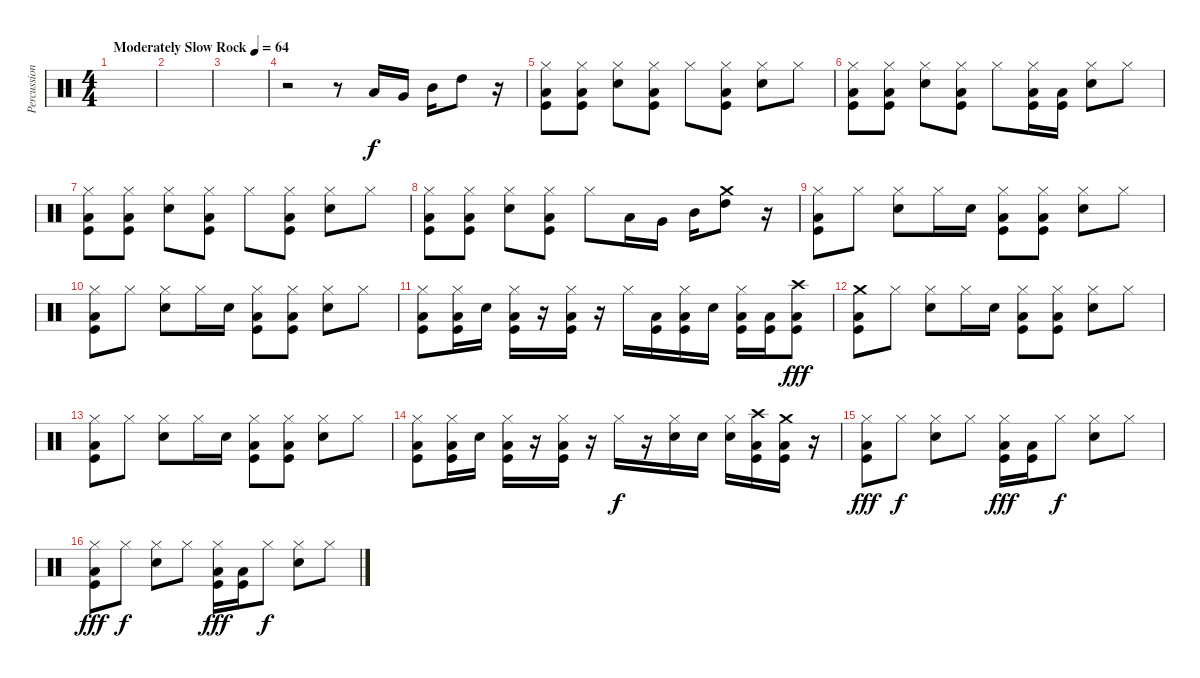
\track ("Percussions" "Percussion") {instrument percussion}
\staff {score}
\articulation defaults
\ts (4 4)
\tempo (64 "Moderately Slow Rock")
\clef neutral
\ks c
|
|
|
r.2 r.8 "Low Tom (hit)".16 "Very Low Tom (hit)".16 "Mid Tom (hit)".16 "High Tom (hit)".8 r.16 |
("Hi-Hat (closed)" "Low Floor Tom (hit)" "Kick (hit)").8 ("Hi-Hat (closed)" "Low Floor Tom (hit)" "Kick (hit)").8 ("Hi-Hat (closed)" "Electric Snare (hit)").8 ("Hi-Hat (closed)" "Low Floor Tom (hit)" "Kick (hit)").8 "Hi-Hat (closed)".8 ("Hi-Hat (closed)" "Low Floor Tom (hit)" "Kick (hit)").8 ("Hi-Hat (closed)" "Electric Snare (hit)").8 "Hi-Hat (closed)".8 |
("Hi-Hat (closed)" "Low Floor Tom (hit)" "Kick (hit)").8 ("Hi-Hat (closed)" "Low Floor Tom (hit)" "Kick (hit)").8 ("Hi-Hat (closed)" "Electric Snare (hit)").8 ("Hi-Hat (closed)" "Low Floor Tom (hit)" "Kick (hit)").8 "Hi-Hat (closed)".8 ("Hi-Hat (closed)" "Low Floor Tom (hit)" "Kick (hit)").16 ("Low Floor Tom (hit)" "Kick (hit)").16 ("Hi-Hat (closed)" "Electric Snare (hit)").8 "Hi-Hat (closed)".8 |
("Hi-Hat (closed)" "Low Floor Tom (hit)" "Kick (hit)").8 ("Hi-Hat (closed)" "Low Floor Tom (hit)" "Kick (hit)").8 ("Hi-Hat (closed)" "Electric Snare (hit)").8 ("Hi-Hat (closed)" "Low Floor Tom (hit)" "Kick (hit)").8 "Hi-Hat (closed)".8 ("Hi-Hat (closed)" "Low Floor Tom (hit)" "Kick (hit)").8 ("Hi-Hat (closed)" "Electric Snare (hit)").8 "Hi-Hat (closed)".8 |
("Hi-Hat (closed)" "Low Floor Tom (hit)" "Kick (hit)").8 ("Hi-Hat (closed)" "Low Floor Tom (hit)" "Kick (hit)").8 ("Hi-Hat (closed)" "Electric Snare (hit)").8 ("Hi-Hat (closed)" "Low Floor Tom (hit)" "Kick (hit)").8 "Hi-Hat (closed)".8 "Low Tom (hit)".16 "Very Low Tom (hit)".16 "Mid Tom (hit)".16 ("Crash medium (hit)" "High Tom (hit)").8 r.16 |
("Hi-Hat (closed)" "Low Floor Tom (hit)" "Kick (hit)").8 "Hi-Hat (closed)".8 ("Hi-Hat (closed)" "Electric Snare (hit)").8 "Hi-Hat (closed)".16 "Electric Snare (hit)".16 ("Hi-Hat (closed)" "Low Floor Tom (hit)" "Kick (hit)").8 ("Hi-Hat (closed)" "Low Floor Tom (hit)" "Kick (hit)").8 ("Hi-Hat (closed)" "Electric Snare (hit)").8 "Hi-Hat (closed)".8 |
("Hi-Hat (closed)" "Low Floor Tom (hit)" "Kick (hit)").8 "Hi-Hat (closed)".8 ("Hi-Hat (closed)" "Electric Snare (hit)").8 "Hi-Hat (closed)".16 "Electric Snare (hit)".16 ("Hi-Hat (closed)" "Low Floor Tom (hit)" "Kick (hit)").8 ("Hi-Hat (closed)" "Low Floor Tom (hit)" "Kick (hit)").8 ("Hi-Hat (closed)" "Electric Snare (hit)").8 "Hi-Hat (closed)".8 |
("Hi-Hat (closed)" "Low Floor Tom (hit)" "Kick (hit)").8 ("Hi-Hat (closed)" "Low Floor Tom (hit)" "Kick (hit)").16 "Electric Snare (hit)".16 ("Hi-Hat (closed)" "Low Floor Tom (hit)" "Kick (hit)").16 r.16 ("Hi-Hat (closed)" "Low Floor Tom (hit)" "Kick (hit)").16 r.16 "Hi-Hat (closed)".16 ("Low Floor Tom (hit)" "Kick (hit)").16 ("Hi-Hat (closed)" "Low Floor Tom (hit)" "Kick (hit)").16 "Electric Snare (hit)".16 ("Hi-Hat (closed)" "Low Floor Tom (hit)" "Kick (hit)").16 ("Low Floor Tom (hit)" "Kick (hit)").16{dy f} ("Crash high (hit)" "Low Floor Tom (hit)" "Kick (hit)").8{dy fff} |
("Crash medium (hit)" "Low Floor Tom (hit)" "Kick (hit)").8 "Hi-Hat (closed)".8 ("Hi-Hat (closed)" "Electric Snare (hit)").8 "Hi-Hat (closed)".16 "Electric Snare (hit)".16 ("Hi-Hat (closed)" "Low Floor Tom (hit)" "Kick (hit)").8 ("Hi-Hat (closed)" "Low Floor Tom (hit)" "Kick (hit)").8 ("Hi-Hat (closed)" "Electric Snare (hit)").8 "Hi-Hat (closed)".8 |
("Hi-Hat (closed)" "Low Floor Tom (hit)" "Kick (hit)").8 "Hi-Hat (closed)".8 ("Hi-Hat (closed)" "Electric Snare (hit)").8 "Hi-Hat (closed)".16 "Electric Snare (hit)".16 ("Hi-Hat (closed)" "Low Floor Tom (hit)" "Kick (hit)").8 ("Hi-Hat (closed)" "Low Floor Tom (hit)" "Kick (hit)").8 ("Hi-Hat (closed)" "Electric Snare (hit)").8 "Hi-Hat (closed)".8 |
("Hi-Hat (closed)" "Low Floor Tom (hit)" "Kick (hit)").8 ("Hi-Hat (closed)" "Low Floor Tom (hit)" "Kick (hit)").16 "Electric Snare (hit)".16 ("Hi-Hat (closed)" "Low Floor Tom (hit)" "Kick (hit)").16 r.16 ("Hi-Hat (closed)" "Low Floor Tom (hit)" "Kick (hit)").16 r.16 "Hi-Hat (closed)".16{dy f} r.16 ("Hi-Hat (closed)" "Electric Snare (hit)").16 "Electric Snare (hit)".16 ("Hi-Hat (closed)" "Electric Snare (hit)").16 ("Crash high (hit)" "Low Floor Tom (hit)" "Kick (hit)").16 ("Crash medium (hit)" "Low Floor Tom (hit)" "Kick (hit)").16 r.16 |
("Hi-Hat (closed)" "Low Floor Tom (hit)" "Kick (hit)").8{dy fff} "Hi-Hat (closed)".8{dy f} ("Hi-Hat (closed)" "Electric Snare (hit)").8 "Hi-Hat (closed)".8 ("Hi-Hat (closed)" "Low Floor Tom (hit)" "Kick (hit)").16{dy fff} ("Low Floor Tom (hit)" "Kick (hit)").16 "Hi-Hat (closed)".8{dy f} ("Hi-Hat (closed)" "Electric Snare (hit)").8 "Hi-Hat (closed)".8 |
("Hi-Hat (closed)" "Low Floor Tom (hit)" "Kick (hit)").8{dy fff} "Hi-Hat (closed)".8{dy f} ("Hi-Hat (closed)" "Electric Snare (hit)").8 "Hi-Hat (closed)".8 ("Hi-Hat (closed)" "Low Floor Tom (hit)" "Kick (hit)").16{dy fff} ("Low Floor Tom (hit)" "Kick (hit)").16 "Hi-Hat (closed)".8{dy f} ("Hi-Hat (closed)" "Electric Snare (hit)").8 "Hi-Hat (closed)".8
